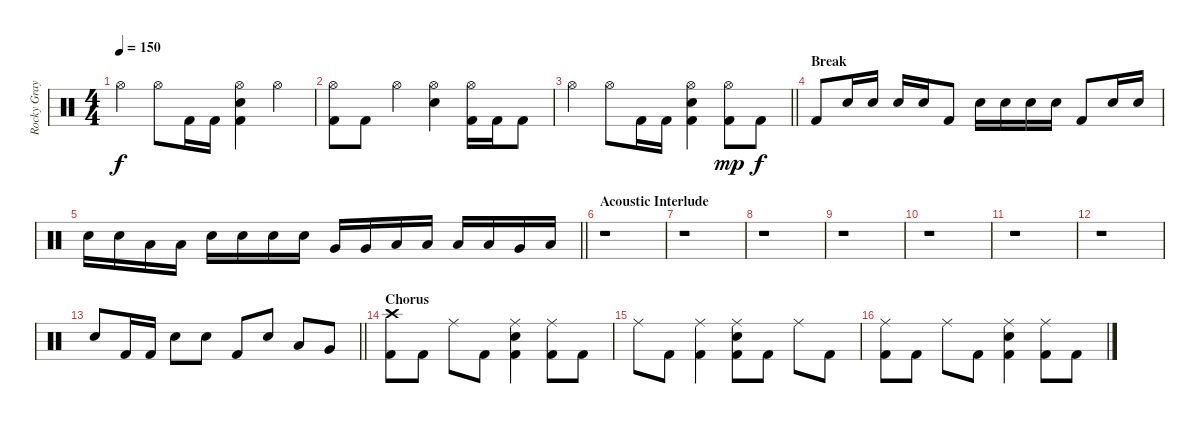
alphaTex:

\track ("Rocky Gray" "Rocky Gray") {instrument percussion}
\staff {score}
\articulation defaults
\ts (4 4)
\tempo 150
\clef neutral
\ks c "Hi-Hat (open)".4{dy f} "Hi-Hat (open)".8 "Kick (hit) 2".16 "Kick (hit) 2".16
("Hi-Hat (open)" "Snare (hit) 2" "Kick (hit) 2").4 "Hi-Hat (open)".4 |
("Hi-Hat (open)" "Kick (hit) 2").8 "Kick (hit) 2".8 "Hi-Hat (open)".4 ("Hi-Hat (open)" "Snare (hit) 2").4 ("Hi-Hat (open)" "Kick (hit) 2").16 "Kick (hit) 2".16 "Kick (hit) 2".8 |
\barLineRight lightlight "Hi-Hat (open)".4 "Hi-Hat (open)".8 "Kick (hit) 2".16 "Kick (hit) 2".16
("Hi-Hat (open)" "Snare (hit) 2" "Kick (hit) 2").4 ("Hi-Hat (open)" "Kick (hit) 2").8{dy mp} "Kick (hit) 2".8{dy f} |
\section ("" "Break")
"Kick (hit) 2".8 "Snare (hit) 2".16 "Snare (hit) 2".16 "Snare (hit) 2".16 "Snare (hit) 2".16 "Kick (hit) 2".8 "Snare (hit) 2".16 "Snare (hit) 2".16 "Snare (hit) 2".16 "Snare (hit) 2".16 "Kick (hit) 2".8 "Snare (hit) 2".16 "Snare (hit) 2".16 |
\barLineRight lightlight "Snare (hit) 2".16 "Snare (hit) 2".16 "Low Tom (hit)".16 "Low Tom (hit)".16 "Snare (hit) 2".16 "Snare (hit) 2".16 "Snare (hit) 2".16 "Snare (hit) 2".16 "Very Low Tom (hit)".16 "Very Low Tom (hit)".16 "Low Floor Tom (hit)".16 "Low Floor Tom (hit)".16 "Low Tom (hit)".16 "Low Tom (hit)".16 "Very Low Tom (hit)".16 "Low Floor Tom (hit)".16
|
\section ("" "Acoustic Interlude")
r.1 |
r.1 |
r.1 |
r.1 |
r.1 |
r.1 |
r.1 |
\barLineRight lightlight "Snare (hit) 2".8 "Kick (hit) 2".16 "Kick (hit) 2".16 "Snare (hit) 2".8 "Snare (hit) 2".8 "Kick (hit) 2".8 "Snare (hit) 2".8 "Low Tom (hit)".8 "Very Low Tom (hit)".8
|
\section ("" "Chorus")
("Crash high (hit)" "Kick (hit) 2").8 "Kick (hit) 2".8 "Ride (middle)".8 "Kick (hit) 2".8 ("Ride (middle)" "Snare (hit) 2" "Kick (hit) 2").4 ("Ride (middle)" "Kick (hit) 2").8 "Kick (hit) 2".8 |
"Ride (middle)".8 "Kick (hit) 2".8 ("Ride (middle)" "Kick (hit) 2").4 ("Ride (middle)" "Snare (hit) 2" "Kick (hit) 2").8 "Kick (hit) 2".8 "Ride (middle)".8 "Kick (hit) 2".8 |
("Ride (middle)" "Kick (hit) 2").8 "Kick (hit) 2".8 "Ride (middle)".8 "Kick (hit) 2".8 ("Ride (middle)" "Snare (hit) 2" "Kick (hit) 2").4 ("Ride (middle)" "Kick (hit) 2").8 "Kick (hit) 2".8
